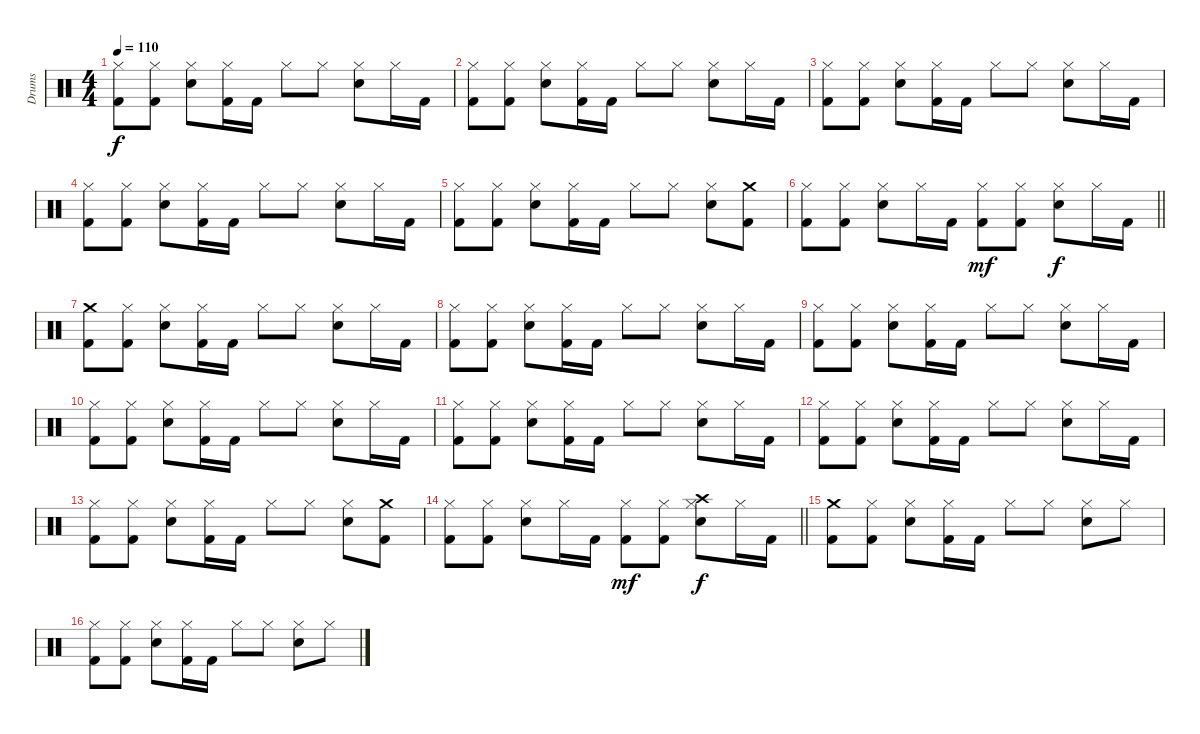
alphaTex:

\track ("Drums" "Drums") {instrument percussion}
\staff {score}
\articulation defaults
\ts (4 4)
\tempo 110
\clef neutral
\ks c
("Hi-Hat (closed)" "Kick (hit) 2").8{dy f} ("Hi-Hat (closed)" "Kick (hit) 2").8 ("Hi-Hat (closed)" "Snare (hit) 2").8 ("Hi-Hat (closed)" "Kick (hit) 2").16 "Kick (hit) 2".16 "Hi-Hat (closed)".8 "Hi-Hat (closed)".8 ("Hi-Hat (closed)" "Snare (hit) 2").8 "Hi-Hat (closed)".16 "Kick (hit) 2".16 |
("Hi-Hat (closed)" "Kick (hit) 2").8 ("Hi-Hat (closed)" "Kick (hit) 2").8 ("Hi-Hat (closed)" "Snare (hit) 2").8 ("Hi-Hat (closed)" "Kick (hit) 2").16 "Kick (hit) 2".16 "Hi-Hat (closed)".8 "Hi-Hat (closed)".8 ("Hi-Hat (closed)" "Snare (hit) 2").8 "Hi-Hat (closed)".16 "Kick (hit) 2".16 |
("Hi-Hat (closed)" "Kick (hit) 2").8 ("Hi-Hat (closed)" "Kick (hit) 2").8 ("Hi-Hat (closed)" "Snare (hit) 2").8 ("Hi-Hat (closed)" "Kick (hit) 2").16 "Kick (hit) 2".16 "Hi-Hat (closed)".8 "Hi-Hat (closed)".8 ("Hi-Hat (closed)" "Snare (hit) 2").8 "Hi-Hat (closed)".16 "Kick (hit) 2".16 |
("Hi-Hat (closed)" "Kick (hit) 2").8 ("Hi-Hat (closed)" "Kick (hit) 2").8 ("Hi-Hat (closed)" "Snare (hit) 2").8 ("Hi-Hat (closed)" "Kick (hit) 2").16 "Kick (hit) 2".16 "Hi-Hat (closed)".8 "Hi-Hat (closed)".8 ("Hi-Hat (closed)" "Snare (hit) 2").8 "Hi-Hat (closed)".16 "Kick (hit) 2".16 |
("Hi-Hat (closed)" "Kick (hit) 2").8 ("Hi-Hat (closed)" "Kick (hit) 2").8 ("Hi-Hat (closed)" "Snare (hit) 2").8 ("Hi-Hat (closed)" "Kick (hit) 2").16 "Kick (hit) 2".16 "Hi-Hat (closed)".8 "Hi-Hat (closed)".8 ("Hi-Hat (closed)" "Snare (hit) 2").8 ("Crash medium (hit)" "Kick (hit) 2").8 |
\barLineRight lightlight
("Hi-Hat (closed)" "Kick (hit) 2").8 ("Hi-Hat (closed)" "Kick (hit) 2").8 ("Hi-Hat (closed)" "Snare (hit) 2").8 "Hi-Hat (closed)".16 "Kick (hit) 2".16 ("Hi-Hat (closed)" "Kick (hit) 2").8{dy mf} ("Hi-Hat (closed)" "Kick (hit) 2").8 ("Hi-Hat (closed)" "Snare (hit) 2").8{dy f} "Hi-Hat (closed)".16 "Kick (hit) 2".16 |
("Crash medium (hit)" "Kick (hit) 2").8 ("Hi-Hat (closed)" "Kick (hit) 2").8 ("Hi-Hat (closed)" "Snare (hit) 2").8 ("Hi-Hat (closed)" "Kick (hit) 2").16 "Kick (hit) 2".16 "Hi-Hat (closed)".8 "Hi-Hat (closed)".8 ("Hi-Hat (closed)" "Snare (hit) 2").8 "Hi-Hat (closed)".16 "Kick (hit) 2".16 |
("Hi-Hat (closed)" "Kick (hit) 2").8 ("Hi-Hat (closed)" "Kick (hit) 2").8 ("Hi-Hat (closed)" "Snare (hit) 2").8 ("Hi-Hat (closed)" "Kick (hit) 2").16 "Kick (hit) 2".16 "Hi-Hat (closed)".8 "Hi-Hat (closed)".8 ("Hi-Hat (closed)" "Snare (hit) 2").8 "Hi-Hat (closed)".16 "Kick (hit) 2".16 |
("Hi-Hat (closed)" "Kick (hit) 2").8 ("Hi-Hat (closed)" "Kick (hit) 2").8 ("Hi-Hat (closed)" "Snare (hit) 2").8 ("Hi-Hat (closed)" "Kick (hit) 2").16 "Kick (hit) 2".16 "Hi-Hat (closed)".8 "Hi-Hat (closed)".8 ("Hi-Hat (closed)" "Snare (hit) 2").8 "Hi-Hat (closed)".16 "Kick (hit) 2".16 |
("Hi-Hat (closed)" "Kick (hit) 2").8 ("Hi-Hat (closed)" "Kick (hit) 2").8 ("Hi-Hat (closed)" "Snare (hit) 2").8 ("Hi-Hat (closed)" "Kick (hit) 2").16 "Kick (hit) 2".16 "Hi-Hat (closed)".8 "Hi-Hat (closed)".8 ("Hi-Hat (closed)" "Snare (hit) 2").8 "Hi-Hat (closed)".16 "Kick (hit) 2".16 |
("Hi-Hat (closed)" "Kick (hit) 2").8 ("Hi-Hat (closed)" "Kick (hit) 2").8 ("Hi-Hat (closed)" "Snare (hit) 2").8 ("Hi-Hat (closed)" "Kick (hit) 2").16 "Kick (hit) 2".16 "Hi-Hat (closed)".8 "Hi-Hat (closed)".8 ("Hi-Hat (closed)" "Snare (hit) 2").8 "Hi-Hat (closed)".16 "Kick (hit) 2".16 |
("Hi-Hat (closed)" "Kick (hit) 2").8 ("Hi-Hat (closed)" "Kick (hit) 2").8 ("Hi-Hat (closed)" "Snare (hit) 2").8 ("Hi-Hat (closed)" "Kick (hit) 2").16 "Kick (hit) 2".16 "Hi-Hat (closed)".8 "Hi-Hat (closed)".8 ("Hi-Hat (closed)" "Snare (hit) 2").8 "Hi-Hat (closed)".16 "Kick (hit) 2".16 |
("Hi-Hat (closed)" "Kick (hit) 2").8 ("Hi-Hat (closed)" "Kick (hit) 2").8 ("Hi-Hat (closed)" "Snare (hit) 2").8 ("Hi-Hat (closed)" "Kick (hit) 2").16 "Kick (hit) 2".16 "Hi-Hat (closed)".8 "Hi-Hat (closed)".8 ("Hi-Hat (closed)" "Snare (hit) 2").8 ("Crash medium (hit)" "Kick (hit) 2").8 |
\barLineRight lightlight
("Hi-Hat (closed)" "Kick (hit) 2").8 ("Hi-Hat (closed)" "Kick (hit) 2").8 ("Hi-Hat (closed)" "Snare (hit) 2").8 "Hi-Hat (closed)".16 "Kick (hit) 2".16 ("Hi-Hat (closed)" "Kick (hit) 2").8{dy mf} ("Hi-Hat (closed)" "Kick (hit) 2").8 ("Crash high (hit)" "Hi-Hat (closed)" "Snare (hit) 2").8{dy f} "Hi-Hat (closed)".16 "Kick (hit) 2".16 |
("Crash medium (hit)" "Kick (hit) 2").8 ("Hi-Hat (closed)" "Kick (hit) 2").8 ("Hi-Hat (closed)" "Snare (hit) 2").8 ("Hi-Hat (closed)" "Kick (hit) 2").16 "Kick (hit) 2".16 "Hi-Hat (closed)".8 "Hi-Hat (closed)".8 ("Hi-Hat (closed)" "Snare (hit) 2").8 "Hi-Hat (closed)".8 |
("Hi-Hat (closed)" "Kick (hit) 2").8 ("Hi-Hat (closed)" "Kick (hit) 2").8 ("Hi-Hat (closed)" "Snare (hit) 2").8 ("Hi-Hat (closed)" "Kick (hit) 2").16 "Kick (hit) 2".16 "Hi-Hat (closed)".8 "Hi-Hat (closed)".8 ("Hi-Hat (closed)" "Snare (hit) 2").8 "Hi-Hat (closed)".8
